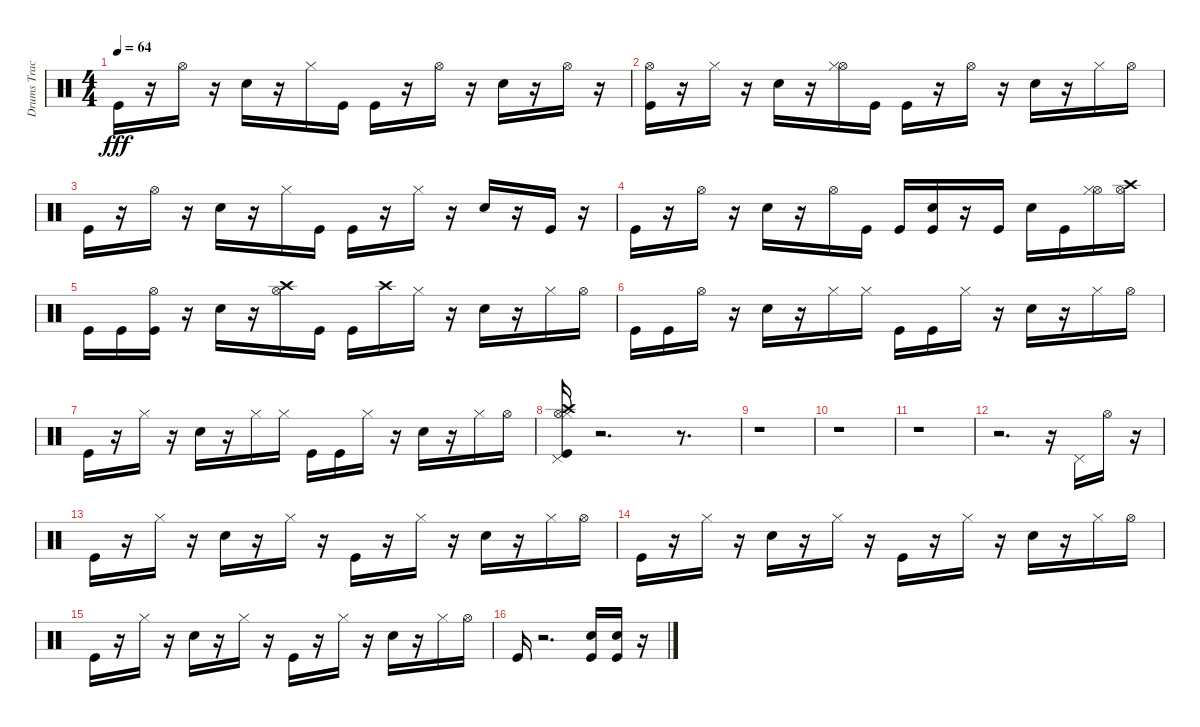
\track ("Drums Track" "Drums Trac") {instrument percussion}
\staff {score}
\articulation defaults
\ts (4 4)
\tempo 64
\clef neutral
\ks c "Kick (hit)".16{dy fff}
r.16 "Hi-Hat (open)".16 r.16 "Snare (hit) 2".16 r.16 "Hi-Hat (closed)".16 "Kick (hit)".16 "Kick (hit)".16 r.16 "Hi-Hat (open)".16 r.16 "Snare (hit) 2".16 r.16 "Hi-Hat (open)".16 r.16 |
("Kick (hit)" "Hi-Hat (open)").16 r.16 "Hi-Hat (closed)".16 r.16 "Snare (hit) 2".16 r.16 ("Hi-Hat (open)" "Hi-Hat (closed)").16 "Kick (hit)".16 "Kick (hit)".16 r.16 "Hi-Hat (open)".16 r.16 "Snare (hit) 2".16 r.16 "Hi-Hat (closed)".16 "Hi-Hat (open)".16 |
"Kick (hit)".16 r.16 "Hi-Hat (open)".16 r.16 "Snare (hit) 2".16 r.16 "Hi-Hat (closed)".16 "Kick (hit)".16 "Kick (hit)".16 r.16 "Hi-Hat (closed)".16 r.16 "Snare (hit) 2".16 r.16 "Kick (hit)".16 r.16 |
"Kick (hit)".16 r.16 "Hi-Hat (open)".16 r.16 "Snare (hit) 2".16 r.16 "Hi-Hat (open)".16 "Kick (hit)".16 "Kick (hit)".16 ("Kick (hit)" "Snare (hit) 2").16 r.16 "Kick (hit)".16 "Snare (hit) 2".16 "Kick (hit)".16 ("Hi-Hat (open)" "Hi-Hat (closed)").16 ("Hi-Hat (open)" "Crash high (hit)").16 |
"Kick (hit)".16 "Kick (hit)".16 ("Kick (hit)" "Hi-Hat (open)").16 r.16 "Snare (hit) 2".16 r.16 ("Hi-Hat (open)" "Crash high (hit)").16 "Kick (hit)".16 "Kick (hit)".16 "Crash high (hit)".16 "Hi-Hat (closed)".16 r.16 "Snare (hit) 2".16 r.16 "Hi-Hat (closed)".16 "Hi-Hat (open)".16 |
"Kick (hit)".16 "Kick (hit)".16 "Hi-Hat (open)".16 r.16 "Snare (hit) 2".16 r.16 "Hi-Hat (closed)".16 "Hi-Hat (closed)".16 "Kick (hit)".16 "Kick (hit)".16 "Hi-Hat (closed)".16 r.16 "Snare (hit) 2".16 r.16 "Hi-Hat (closed)".16 "Hi-Hat (open)".16 |
"Kick (hit)".16 r.16 "Hi-Hat (closed)".16 r.16 "Snare (hit) 2".16 r.16 "Hi-Hat (closed)".16 "Hi-Hat (closed)".16 "Kick (hit)".16 "Kick (hit)".16 "Hi-Hat (closed)".16 r.16 "Snare (hit) 2".16 r.16 "Hi-Hat (closed)".16 "Hi-Hat (open)".16 |
("Crash high (hit)" "Kick (hit)" "Pedal Hi-Hat (hit)" "Hi-Hat (open)" "Hi-Hat (closed)").16 r.2{d} r.8{d} |
r.1 |
r.1 |
r.1 |
r.2{d} r.16 "Pedal Hi-Hat (hit)".16 "Hi-Hat (open)".16 r.16 |
"Kick (hit)".16 r.16 "Hi-Hat (closed)".16 r.16 "Snare (hit) 2".16 r.16 "Hi-Hat (closed)".16 r.16 "Kick (hit)".16 r.16 "Hi-Hat (closed)".16 r.16 "Snare (hit) 2".16 r.16 "Hi-Hat (closed)".16 "Hi-Hat (open)".16 |
"Kick (hit)".16 r.16 "Hi-Hat (closed)".16 r.16 "Snare (hit) 2".16 r.16 "Hi-Hat (closed)".16 r.16 "Kick (hit)".16 r.16 "Hi-Hat (closed)".16 r.16 "Snare (hit) 2".16 r.16 "Hi-Hat (closed)".16 "Hi-Hat (open)".16 |
"Kick (hit)".16 r.16 "Hi-Hat (closed)".16 r.16 "Snare (hit) 2".16 r.16 "Hi-Hat (closed)".16 r.16 "Kick (hit)".16 r.16 "Hi-Hat (closed)".16 r.16 "Snare (hit) 2".16 r.16 "Hi-Hat (closed)".16 "Hi-Hat (open)".16 |
"Kick (hit)".16 r.2{d} ("Kick (hit)" "Snare (hit) 2").16 ("Kick (hit)" "Snare (hit) 2").16 r.16
